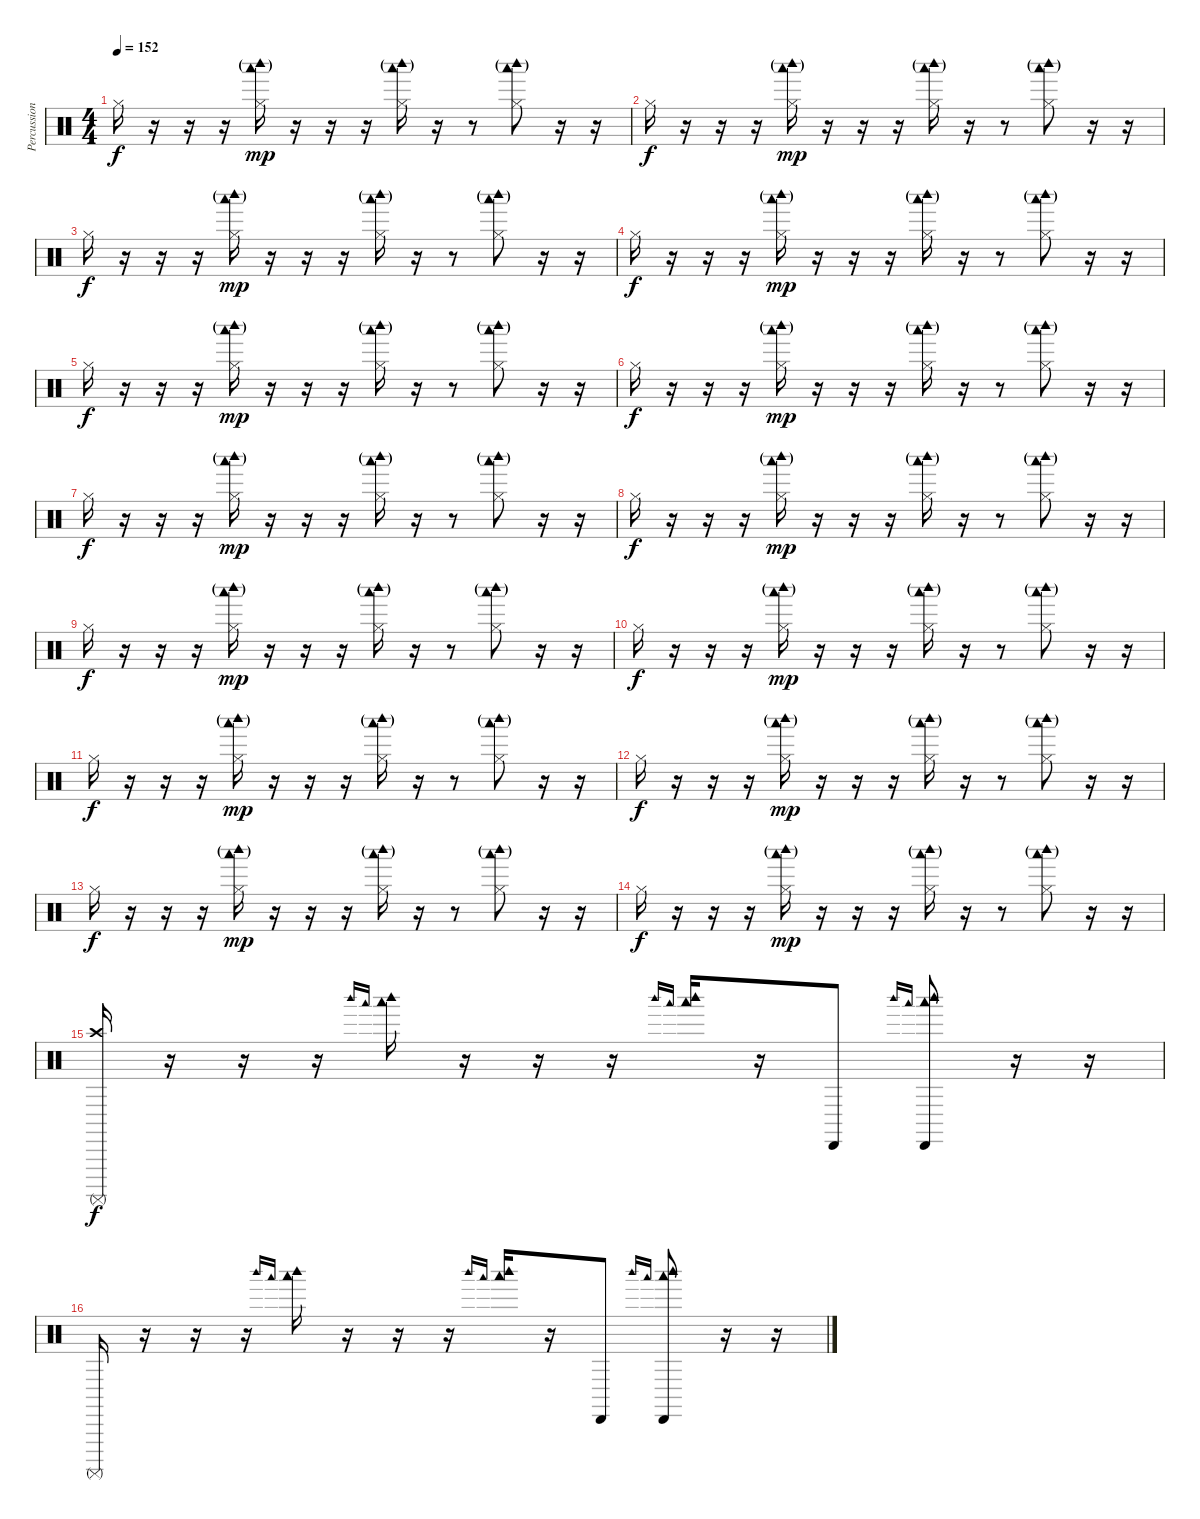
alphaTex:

\track ("Percussion" "Percussion") {instrument percussion}
\staff {score}
\articulation defaults
\ts (4 4)
\tempo 152
\clef neutral
\ks c "Hi-Hat (closed)".16{dy f}
r.16 r.16 r.16 ("Hi-Hat (closed)" "Woodblock high (hit)"{g} "Woodblock low (hit)"{g}).16{dy mp} r.16 r.16 r.16 ("Hi-Hat (closed)" "Woodblock high (hit)"{g} "Woodblock low (hit)"{g}).16 r.16 r.8 ("Hi-Hat (closed)" "Woodblock high (hit)"{g} "Woodblock low (hit)"{g}).8 r.16 r.16 |
"Hi-Hat (closed)".16{dy f} r.16 r.16 r.16 ("Hi-Hat (closed)" "Woodblock high (hit)"{g} "Woodblock low (hit)"{g}).16{dy mp} r.16 r.16 r.16 ("Hi-Hat (closed)" "Woodblock high (hit)"{g} "Woodblock low (hit)"{g}).16 r.16 r.8 ("Hi-Hat (closed)" "Woodblock high (hit)"{g} "Woodblock low (hit)"{g}).8 r.16 r.16 |
"Hi-Hat (closed)".16{dy f} r.16 r.16 r.16 ("Hi-Hat (closed)" "Woodblock high (hit)"{g} "Woodblock low (hit)"{g}).16{dy mp} r.16 r.16 r.16 ("Hi-Hat (closed)" "Woodblock high (hit)"{g} "Woodblock low (hit)"{g}).16 r.16 r.8 ("Hi-Hat (closed)" "Woodblock high (hit)"{g} "Woodblock low (hit)"{g}).8 r.16 r.16 |
"Hi-Hat (closed)".16{dy f} r.16 r.16 r.16 ("Hi-Hat (closed)" "Woodblock high (hit)"{g} "Woodblock low (hit)"{g}).16{dy mp} r.16 r.16 r.16 ("Hi-Hat (closed)" "Woodblock high (hit)"{g} "Woodblock low (hit)"{g}).16 r.16 r.8 ("Hi-Hat (closed)" "Woodblock high (hit)"{g} "Woodblock low (hit)"{g}).8 r.16 r.16 |
"Hi-Hat (closed)".16{dy f} r.16 r.16 r.16 ("Hi-Hat (closed)" "Woodblock high (hit)"{g} "Woodblock low (hit)"{g}).16{dy mp} r.16 r.16 r.16 ("Hi-Hat (closed)" "Woodblock high (hit)"{g} "Woodblock low (hit)"{g}).16 r.16 r.8 ("Hi-Hat (closed)" "Woodblock high (hit)"{g} "Woodblock low (hit)"{g}).8 r.16 r.16 |
"Hi-Hat (closed)".16{dy f} r.16 r.16 r.16 ("Hi-Hat (closed)" "Woodblock high (hit)"{g} "Woodblock low (hit)"{g}).16{dy mp} r.16 r.16 r.16 ("Hi-Hat (closed)" "Woodblock high (hit)"{g} "Woodblock low (hit)"{g}).16 r.16 r.8 ("Hi-Hat (closed)" "Woodblock high (hit)"{g} "Woodblock low (hit)"{g}).8 r.16 r.16 |
"Hi-Hat (closed)".16{dy f} r.16 r.16 r.16 ("Hi-Hat (closed)" "Woodblock high (hit)"{g} "Woodblock low (hit)"{g}).16{dy mp} r.16 r.16 r.16 ("Hi-Hat (closed)" "Woodblock high (hit)"{g} "Woodblock low (hit)"{g}).16 r.16 r.8 ("Hi-Hat (closed)" "Woodblock high (hit)"{g} "Woodblock low (hit)"{g}).8 r.16 r.16 |
"Hi-Hat (closed)".16{dy f} r.16 r.16 r.16 ("Hi-Hat (closed)" "Woodblock high (hit)"{g} "Woodblock low (hit)"{g}).16{dy mp} r.16 r.16 r.16 ("Hi-Hat (closed)" "Woodblock high (hit)"{g} "Woodblock low (hit)"{g}).16 r.16 r.8 ("Hi-Hat (closed)" "Woodblock high (hit)"{g} "Woodblock low (hit)"{g}).8 r.16 r.16 |
"Hi-Hat (closed)".16{dy f} r.16 r.16 r.16 ("Hi-Hat (closed)" "Woodblock high (hit)"{g} "Woodblock low (hit)"{g}).16{dy mp} r.16 r.16 r.16 ("Hi-Hat (closed)" "Woodblock high (hit)"{g} "Woodblock low (hit)"{g}).16 r.16 r.8 ("Hi-Hat (closed)" "Woodblock high (hit)"{g} "Woodblock low (hit)"{g}).8 r.16 r.16 |
"Hi-Hat (closed)".16{dy f} r.16 r.16 r.16 ("Hi-Hat (closed)" "Woodblock high (hit)"{g} "Woodblock low (hit)"{g}).16{dy mp} r.16 r.16 r.16 ("Hi-Hat (closed)" "Woodblock high (hit)"{g} "Woodblock low (hit)"{g}).16 r.16 r.8 ("Hi-Hat (closed)" "Woodblock high (hit)"{g} "Woodblock low (hit)"{g}).8 r.16 r.16 |
"Hi-Hat (closed)".16{dy f} r.16 r.16 r.16 ("Hi-Hat (closed)" "Woodblock high (hit)"{g} "Woodblock low (hit)"{g}).16{dy mp} r.16 r.16 r.16 ("Hi-Hat (closed)" "Woodblock high (hit)"{g} "Woodblock low (hit)"{g}).16 r.16 r.8 ("Hi-Hat (closed)" "Woodblock high (hit)"{g} "Woodblock low (hit)"{g}).8 r.16 r.16 |
"Hi-Hat (closed)".16{dy f} r.16 r.16 r.16 ("Hi-Hat (closed)" "Woodblock high (hit)"{g} "Woodblock low (hit)"{g}).16{dy mp} r.16 r.16 r.16 ("Hi-Hat (closed)" "Woodblock high (hit)"{g} "Woodblock low (hit)"{g}).16 r.16 r.8 ("Hi-Hat (closed)" "Woodblock high (hit)"{g} "Woodblock low (hit)"{g}).8 r.16 r.16 |
"Hi-Hat (closed)".16{dy f} r.16 r.16 r.16 ("Hi-Hat (closed)" "Woodblock high (hit)"{g} "Woodblock low (hit)"{g}).16{dy mp} r.16 r.16 r.16 ("Hi-Hat (closed)" "Woodblock high (hit)"{g} "Woodblock low (hit)"{g}).16 r.16 r.8 ("Hi-Hat (closed)" "Woodblock high (hit)"{g} "Woodblock low (hit)"{g}).8 r.16 r.16 |
"Hi-Hat (closed)".16{dy f} r.16 r.16 r.16 ("Hi-Hat (closed)" "Woodblock high (hit)"{g} "Woodblock low (hit)"{g}).16{dy mp} r.16 r.16 r.16 ("Hi-Hat (closed)" "Woodblock high (hit)"{g} "Woodblock low (hit)"{g}).16 r.16 r.8 ("Hi-Hat (closed)" "Woodblock high (hit)"{g} "Woodblock low (hit)"{g}).8 r.16 r.16 |
("Crash high (hit)" "Surdo (mute)").16{dy f} r.16 r.16 r.16 "Woodblock high (hit)".16{gr onbeat} "Woodblock low (hit)".16{gr onbeat} ("Woodblock high (hit)" "Woodblock low (hit)").16 r.16 r.16 r.16 "Woodblock high (hit)".16{gr onbeat} "Woodblock low (hit)".16{gr onbeat} ("Woodblock high (hit)" "Woodblock low (hit)").16 r.16 "Cabasa (hit)".8 "Woodblock high (hit)".16{gr onbeat} "Woodblock low (hit)".16{gr onbeat} ("Cabasa (hit)" "Woodblock high (hit)" "Woodblock low (hit)").8 r.16 r.16 |
"Surdo (mute)".16 r.16 r.16 r.16 "Woodblock high (hit)".16{gr onbeat} "Woodblock low (hit)".16{gr onbeat} ("Woodblock high (hit)" "Woodblock low (hit)").16 r.16 r.16 r.16 "Woodblock high (hit)".16{gr onbeat} "Woodblock low (hit)".16{gr onbeat} ("Woodblock high (hit)" "Woodblock low (hit)").16 r.16 "Cabasa (hit)".8 "Woodblock high (hit)".16{gr onbeat} "Woodblock low (hit)".16{gr onbeat} ("Cabasa (hit)" "Woodblock high (hit)" "Woodblock low (hit)").8 r.16 r.16
